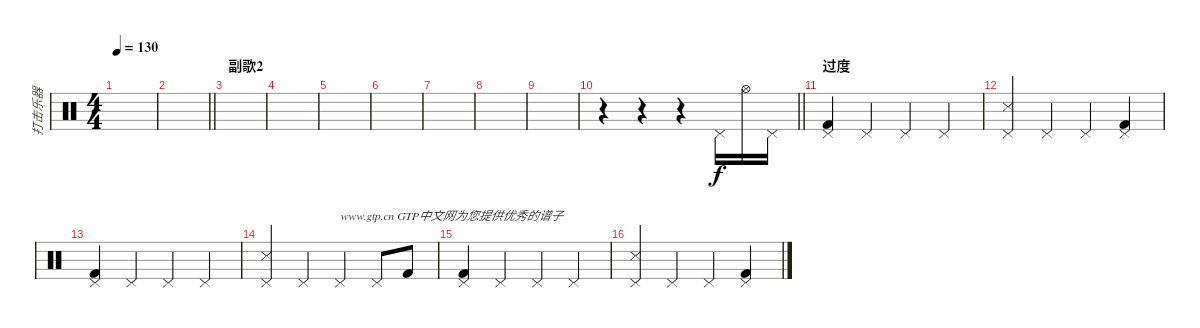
\track ("打击乐器" "打击乐器") {instrument percussion}
\staff {score}
\articulation defaults
\ts (4 4)
\tempo 130
\clef neutral
\ks c
|
\barLineRight lightlight
|
\section ("" "副歌2")
|
|
|
|
|
|
|
\barLineRight lightlight
r.4 r.4 r.4 "Pedal Hi-Hat (hit)".16 "Hi-Hat (open)".16 "Pedal Hi-Hat (hit)".16 |
\section ("" "过度")
("Pedal Hi-Hat (hit)" "Kick (hit) 2").4 "Pedal Hi-Hat (hit)".4 "Pedal Hi-Hat (hit)".4 "Pedal Hi-Hat (hit)".4 |
("Pedal Hi-Hat (hit)" "Metronome (hit)").4 "Pedal Hi-Hat (hit)".4 "Pedal Hi-Hat (hit)".4 ("Pedal Hi-Hat (hit)" "Kick (hit) 2").4 |
("Pedal Hi-Hat (hit)" "Kick (hit) 2").4 "Pedal Hi-Hat (hit)".4 "Pedal Hi-Hat (hit)".4 "Pedal Hi-Hat (hit)".4 |
("Pedal Hi-Hat (hit)" "Metronome (hit)").4 "Pedal Hi-Hat (hit)".4 "Pedal Hi-Hat (hit)".4{txt "www.gtp.cn GTP中文网为您提供优秀的谱子"} "Pedal Hi-Hat (hit)".8 "Kick (hit) 2".8 |
("Pedal Hi-Hat (hit)" "Kick (hit) 2").4 "Pedal Hi-Hat (hit)".4 "Pedal Hi-Hat (hit)".4 "Pedal Hi-Hat (hit)".4 |
("Pedal Hi-Hat (hit)" "Metronome (hit)").4 "Pedal Hi-Hat (hit)".4 "Pedal Hi-Hat (hit)".4 ("Pedal Hi-Hat (hit)" "Kick (hit) 2").4
